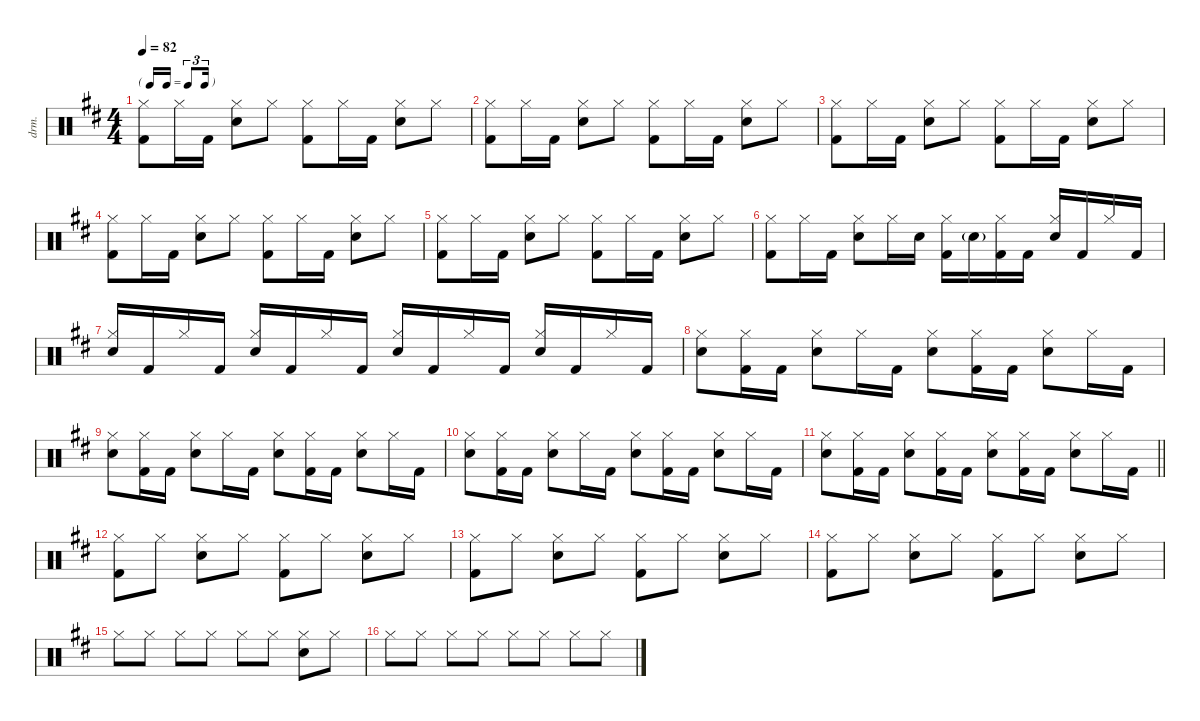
\defaultSystemsLayout 4
\hideDynamics
\bracketExtendMode nobrackets
\otherSystemsTrackNameOrientation horizontal
\track ("Buddy" "drm.") {instrument percussion}
\staff {score}
\articulation defaults
\ts (4 4)
\tf triplet16th
\tempo 82
\clef neutral
\ks d
("Hi-Hat (closed)"{acc forcenatural} "Kick (hit) 2"{acc forcenatural}).8{dy f beam Down} "Hi-Hat (closed)"{acc forcenatural}.16{beam Down} "Kick (hit) 2"{acc forcenatural}.16{beam Down} ("Hi-Hat (closed)"{acc forcenatural} "Snare (hit) 2"{acc forcenatural}).8{beam Down} "Hi-Hat (closed)"{acc forcenatural}.8{beam Down} ("Hi-Hat (closed)"{acc forcenatural} "Kick (hit) 2"{acc forcenatural}).8{beam Down} "Hi-Hat (closed)"{acc forcenatural}.16{beam Down} "Kick (hit) 2"{acc forcenatural}.16{beam Down} ("Hi-Hat (closed)"{acc forcenatural} "Snare (hit) 2"{acc forcenatural}).8{beam Down} "Hi-Hat (closed)"{acc forcenatural}.8{beam Down} |
("Hi-Hat (closed)"{acc forcenatural} "Kick (hit) 2"{acc forcenatural}).8{beam Down} "Hi-Hat (closed)"{acc forcenatural}.16{beam Down} "Kick (hit) 2"{acc forcenatural}.16{beam Down} ("Hi-Hat (closed)"{acc forcenatural} "Snare (hit) 2"{acc forcenatural}).8{beam Down} "Hi-Hat (closed)"{acc forcenatural}.8{beam Down} ("Hi-Hat (closed)"{acc forcenatural} "Kick (hit) 2"{acc forcenatural}).8{beam Down} "Hi-Hat (closed)"{acc forcenatural}.16{beam Down} "Kick (hit) 2"{acc forcenatural}.16{beam Down} ("Hi-Hat (closed)"{acc forcenatural} "Snare (hit) 2"{acc forcenatural}).8{beam Down} "Hi-Hat (closed)"{acc forcenatural}.8{beam Down} |
("Hi-Hat (closed)"{acc forcenatural} "Kick (hit) 2"{acc forcenatural}).8{beam Down} "Hi-Hat (closed)"{acc forcenatural}.16{beam Down} "Kick (hit) 2"{acc forcenatural}.16{beam Down} ("Hi-Hat (closed)"{acc forcenatural} "Snare (hit) 2"{acc forcenatural}).8{beam Down} "Hi-Hat (closed)"{acc forcenatural}.8{beam Down} ("Hi-Hat (closed)"{acc forcenatural} "Kick (hit) 2"{acc forcenatural}).8{beam Down} "Hi-Hat (closed)"{acc forcenatural}.16{beam Down} "Kick (hit) 2"{acc forcenatural}.16{beam Down} ("Hi-Hat (closed)"{acc forcenatural} "Snare (hit) 2"{acc forcenatural}).8{beam Down} "Hi-Hat (closed)"{acc forcenatural}.8{beam Down} |
("Hi-Hat (closed)"{acc forcenatural} "Kick (hit) 2"{acc forcenatural}).8{beam Down} "Hi-Hat (closed)"{acc forcenatural}.16{beam Down} "Kick (hit) 2"{acc forcenatural}.16{beam Down} ("Hi-Hat (closed)"{acc forcenatural} "Snare (hit) 2"{acc forcenatural}).8{beam Down} "Hi-Hat (closed)"{acc forcenatural}.8{beam Down} ("Hi-Hat (closed)"{acc forcenatural} "Kick (hit) 2"{acc forcenatural}).8{beam Down} "Hi-Hat (closed)"{acc forcenatural}.16{beam Down} "Kick (hit) 2"{acc forcenatural}.16{beam Down} ("Hi-Hat (closed)"{acc forcenatural} "Snare (hit) 2"{acc forcenatural}).8{beam Down} "Hi-Hat (closed)"{acc forcenatural}.8{beam Down} |
("Hi-Hat (closed)"{acc forcenatural} "Kick (hit) 2"{acc forcenatural}).8{beam Down} "Hi-Hat (closed)"{acc forcenatural}.16{beam Down} "Kick (hit) 2"{acc forcenatural}.16{beam Down} ("Hi-Hat (closed)"{acc forcenatural} "Snare (hit) 2"{acc forcenatural}).8{beam Down} "Hi-Hat (closed)"{acc forcenatural}.8{beam Down} ("Hi-Hat (closed)"{acc forcenatural} "Kick (hit) 2"{acc forcenatural}).8{beam Down} "Hi-Hat (closed)"{acc forcenatural}.16{beam Down} "Kick (hit) 2"{acc forcenatural}.16{beam Down} ("Hi-Hat (closed)"{acc forcenatural} "Snare (hit) 2"{acc forcenatural}).8{beam Down} "Hi-Hat (closed)"{acc forcenatural}.8{beam Down} |
("Hi-Hat (closed)"{acc forcenatural} "Kick (hit) 2"{acc forcenatural}).8{beam Down} "Hi-Hat (closed)"{acc forcenatural}.16{beam Down} "Kick (hit) 2"{acc forcenatural}.16{beam Down} ("Hi-Hat (closed)"{acc forcenatural} "Snare (hit) 2"{acc forcenatural}).8{beam Down} "Hi-Hat (closed)"{acc forcenatural}.16{beam Down} "Snare (hit) 2"{acc forcenatural}.16{beam Down} ("Hi-Hat (closed)"{acc forcenatural} "Kick (hit) 2"{acc forcenatural}).16{beam Down} "Snare (hit) 2"{g acc forcenatural}.16{dy mf beam Down} ("Hi-Hat (closed)"{acc forcenatural} "Kick (hit) 2"{acc forcenatural}).16{dy f beam Down} "Kick (hit) 2"{acc forcenatural}.16{beam Down} ("Hi-Hat (closed)"{acc forcenatural} "Snare (hit) 2"{acc forcenatural}).16{beam Up} "Kick (hit) 2"{acc forcenatural}.16{beam Up} "Hi-Hat (closed)"{acc forcenatural}.16{beam Up} "Kick (hit) 2"{acc forcenatural}.16{beam Up} |
("Hi-Hat (closed)"{acc forcenatural} "Snare (hit) 2"{acc forcenatural}).16{beam Up} "Kick (hit) 2"{acc forcenatural}.16{beam Up} "Hi-Hat (closed)"{acc forcenatural}.16{beam Up} "Kick (hit) 2"{acc forcenatural}.16{beam Up} ("Hi-Hat (closed)"{acc forcenatural} "Snare (hit) 2"{acc forcenatural}).16{beam Up} "Kick (hit) 2"{acc forcenatural}.16{beam Up} "Hi-Hat (closed)"{acc forcenatural}.16{beam Up} "Kick (hit) 2"{acc forcenatural}.16{beam Up} ("Hi-Hat (closed)"{acc forcenatural} "Snare (hit) 2"{acc forcenatural}).16{beam Up} "Kick (hit) 2"{acc forcenatural}.16{beam Up} "Hi-Hat (closed)"{acc forcenatural}.16{beam Up} "Kick (hit) 2"{acc forcenatural}.16{beam Up} ("Hi-Hat (closed)"{acc forcenatural} "Snare (hit) 2"{acc forcenatural}).16{beam Up} "Kick (hit) 2"{acc forcenatural}.16{beam Up} "Hi-Hat (closed)"{acc forcenatural}.16{beam Up} "Kick (hit) 2"{acc forcenatural}.16{beam Up} |
("Hi-Hat (closed)"{acc forcenatural} "Snare (hit) 2"{acc forcenatural}).8{beam Down} ("Hi-Hat (closed)"{acc forcenatural} "Kick (hit) 2"{acc forcenatural}).16{beam Down} "Kick (hit) 2"{acc forcenatural}.16{beam Down} ("Hi-Hat (closed)"{acc forcenatural} "Snare (hit) 2"{acc forcenatural}).8{beam Down} "Hi-Hat (closed)"{acc forcenatural}.16{beam Down} "Kick (hit) 2"{acc forcenatural}.16{beam Down} ("Hi-Hat (closed)"{acc forcenatural} "Snare (hit) 2"{acc forcenatural}).8{beam Down} ("Hi-Hat (closed)"{acc forcenatural} "Kick (hit) 2"{acc forcenatural}).16{beam Down} "Kick (hit) 2"{acc forcenatural}.16{beam Down} ("Hi-Hat (closed)"{acc forcenatural} "Snare (hit) 2"{acc forcenatural}).8{beam Down} "Hi-Hat (closed)"{acc forcenatural}.16{beam Down} "Kick (hit) 2"{acc forcenatural}.16{beam Down} |
("Hi-Hat (closed)"{acc forcenatural} "Snare (hit) 2"{acc forcenatural}).8{beam Down} ("Hi-Hat (closed)"{acc forcenatural} "Kick (hit) 2"{acc forcenatural}).16{beam Down} "Kick (hit) 2"{acc forcenatural}.16{beam Down} ("Hi-Hat (closed)"{acc forcenatural} "Snare (hit) 2"{acc forcenatural}).8{beam Down} "Hi-Hat (closed)"{acc forcenatural}.16{beam Down} "Kick (hit) 2"{acc forcenatural}.16{beam Down} ("Hi-Hat (closed)"{acc forcenatural} "Snare (hit) 2"{acc forcenatural}).8{beam Down} ("Hi-Hat (closed)"{acc forcenatural} "Kick (hit) 2"{acc forcenatural}).16{beam Down} "Kick (hit) 2"{acc forcenatural}.16{beam Down} ("Hi-Hat (closed)"{acc forcenatural} "Snare (hit) 2"{acc forcenatural}).8{beam Down} "Hi-Hat (closed)"{acc forcenatural}.16{beam Down} "Kick (hit) 2"{acc forcenatural}.16{beam Down} |
("Hi-Hat (closed)"{acc forcenatural} "Snare (hit) 2"{acc forcenatural}).8{beam Down} ("Hi-Hat (closed)"{acc forcenatural} "Kick (hit) 2"{acc forcenatural}).16{beam Down} "Kick (hit) 2"{acc forcenatural}.16{beam Down} ("Hi-Hat (closed)"{acc forcenatural} "Snare (hit) 2"{acc forcenatural}).8{beam Down} "Hi-Hat (closed)"{acc forcenatural}.16{beam Down} "Kick (hit) 2"{acc forcenatural}.16{beam Down} ("Hi-Hat (closed)"{acc forcenatural} "Snare (hit) 2"{acc forcenatural}).8{beam Down} ("Hi-Hat (closed)"{acc forcenatural} "Kick (hit) 2"{acc forcenatural}).16{beam Down} "Kick (hit) 2"{acc forcenatural}.16{beam Down} ("Hi-Hat (closed)"{acc forcenatural} "Snare (hit) 2"{acc forcenatural}).8{beam Down} "Hi-Hat (closed)"{acc forcenatural}.16{beam Down} "Kick (hit) 2"{acc forcenatural}.16{beam Down} |
\barLineRight lightlight
("Hi-Hat (closed)"{acc forcenatural} "Snare (hit) 2"{acc forcenatural}).8{beam Down} ("Hi-Hat (closed)"{acc forcenatural} "Kick (hit) 2"{acc forcenatural}).16{beam Down} "Kick (hit) 2"{acc forcenatural}.16{beam Down} ("Hi-Hat (closed)"{acc forcenatural} "Snare (hit) 2"{acc forcenatural}).8{beam Down} ("Hi-Hat (closed)"{acc forcenatural} "Kick (hit) 2"{acc forcenatural}).16{beam Down} "Kick (hit) 2"{acc forcenatural}.16{beam Down} ("Hi-Hat (closed)"{acc forcenatural} "Snare (hit) 2"{acc forcenatural}).8{beam Down} ("Hi-Hat (closed)"{acc forcenatural} "Kick (hit) 2"{acc forcenatural}).16{beam Down} "Kick (hit) 2"{acc forcenatural}.16{beam Down} ("Hi-Hat (closed)"{acc forcenatural} "Snare (hit) 2"{acc forcenatural}).8{beam Down} "Hi-Hat (closed)"{acc forcenatural}.16{beam Down} "Kick (hit) 2"{acc forcenatural}.16{beam Down} |
("Hi-Hat (closed)"{acc forcenatural} "Kick (hit) 2"{acc forcenatural}).8{beam Down} "Hi-Hat (closed)"{acc forcenatural}.8{beam Down} ("Hi-Hat (closed)"{acc forcenatural} "Snare (hit) 2"{acc forcenatural}).8{beam Down} "Hi-Hat (closed)"{acc forcenatural}.8{beam Down} ("Hi-Hat (closed)"{acc forcenatural} "Kick (hit) 2"{acc forcenatural}).8{beam Down} "Hi-Hat (closed)"{acc forcenatural}.8{beam Down} ("Hi-Hat (closed)"{acc forcenatural} "Snare (hit) 2"{acc forcenatural}).8{beam Down} "Hi-Hat (closed)"{acc forcenatural}.8{beam Down} |
("Hi-Hat (closed)"{acc forcenatural} "Kick (hit) 2"{acc forcenatural}).8{beam Down} "Hi-Hat (closed)"{acc forcenatural}.8{beam Down} ("Hi-Hat (closed)"{acc forcenatural} "Snare (hit) 2"{acc forcenatural}).8{beam Down} "Hi-Hat (closed)"{acc forcenatural}.8{beam Down} ("Hi-Hat (closed)"{acc forcenatural} "Kick (hit) 2"{acc forcenatural}).8{beam Down} "Hi-Hat (closed)"{acc forcenatural}.8{beam Down} ("Hi-Hat (closed)"{acc forcenatural} "Snare (hit) 2"{acc forcenatural}).8{beam Down} "Hi-Hat (closed)"{acc forcenatural}.8{beam Down} |
("Hi-Hat (closed)"{acc forcenatural} "Kick (hit) 2"{acc forcenatural}).8{beam Down} "Hi-Hat (closed)"{acc forcenatural}.8{beam Down} ("Hi-Hat (closed)"{acc forcenatural} "Snare (hit) 2"{acc forcenatural}).8{beam Down} "Hi-Hat (closed)"{acc forcenatural}.8{beam Down} ("Hi-Hat (closed)"{acc forcenatural} "Kick (hit) 2"{acc forcenatural}).8{beam Down} "Hi-Hat (closed)"{acc forcenatural}.8{beam Down} ("Hi-Hat (closed)"{acc forcenatural} "Snare (hit) 2"{acc forcenatural}).8{beam Down} "Hi-Hat (closed)"{acc forcenatural}.8{beam Down} |
"Hi-Hat (closed)"{acc forcenatural}.8{dy mf beam Down} "Hi-Hat (closed)"{acc forcenatural}.8{beam Down} "Hi-Hat (closed)"{acc forcenatural}.8{beam Down} "Hi-Hat (closed)"{acc forcenatural}.8{beam Down} "Hi-Hat (closed)"{acc forcenatural}.8{beam Down} "Hi-Hat (closed)"{acc forcenatural}.8{beam Down} ("Hi-Hat (closed)"{acc forcenatural} "Snare (hit) 2"{acc forcenatural}).8{beam Down} "Hi-Hat (closed)"{acc forcenatural}.8{beam Down} |
"Hi-Hat (closed)"{acc forcenatural}.8{dy mp beam Down} "Hi-Hat (closed)"{acc forcenatural}.8{beam Down} "Hi-Hat (closed)"{acc forcenatural}.8{beam Down} "Hi-Hat (closed)"{acc forcenatural}.8{beam Down} "Hi-Hat (closed)"{acc forcenatural}.8{beam Down} "Hi-Hat (closed)"{acc forcenatural}.8{beam Down} "Hi-Hat (closed)"{acc forcenatural}.8{beam Down} "Hi-Hat (closed)"{acc forcenatural}.8{beam Down}
